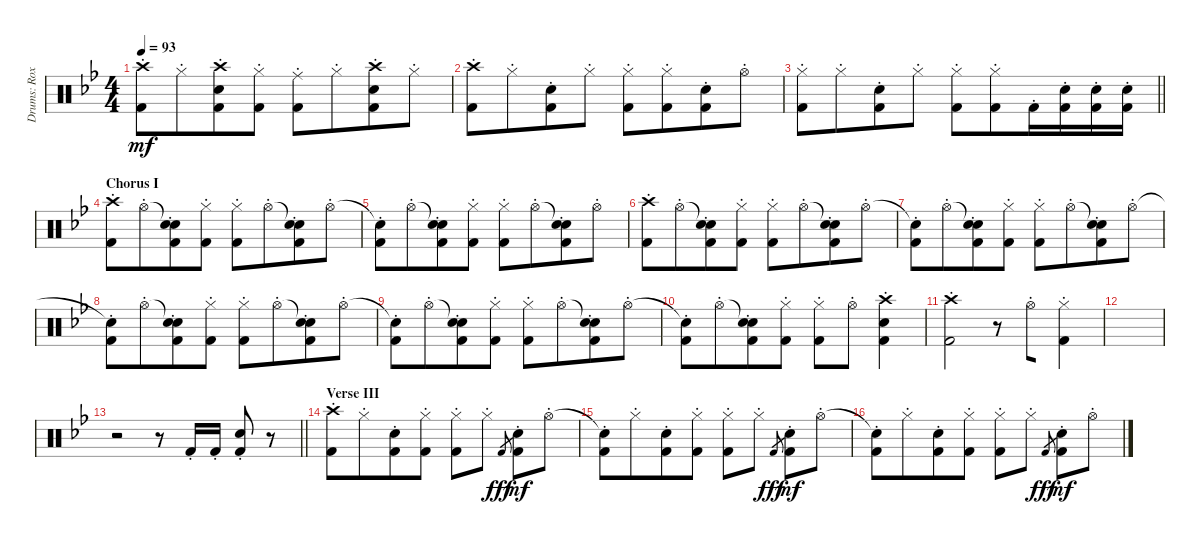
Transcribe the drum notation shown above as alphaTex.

\track ("Drums: Roxy" "Drums: Rox") {instrument percussion}
\staff {score}
\articulation defaults
\ts (4 4)
\tempo 93
\clef neutral
\ks bb
("Crash high (hit)"{st} "Kick (hit) 2"{st}).8{dy mf} "Hi-Hat (closed)"{st}.8{beam merge} ("Crash high (hit)"{st} "Snare (hit) 2"{st} "Kick (hit) 2"{st}).8 ("Hi-Hat (closed)"{st} "Kick (hit) 2"{st}).8{beam split} ("Ride (middle)"{st} "Kick (hit) 2"{st}).8 "Hi-Hat (closed)"{st}.8{beam merge} ("Crash high (hit)"{st} "Snare (hit) 2"{st} "Kick (hit) 2"{st}).8 "Hi-Hat (closed)"{st}.8 |
("Crash high (hit)"{st} "Kick (hit) 2"{st}).8 "Hi-Hat (closed)"{st}.8{beam merge} ("Snare (hit) 2"{st} "Kick (hit) 2"{st}).8 "Hi-Hat (closed)"{st}.8{beam split} ("Hi-Hat (closed)"{st} "Kick (hit) 2"{st}).8 ("Hi-Hat (closed)"{st} "Kick (hit) 2"{st}).8{beam merge} ("Snare (hit) 2"{st} "Kick (hit) 2"{st}).8 "Hi-Hat (open)"{st}.8 |
\barLineRight lightlight
("Hi-Hat (closed)"{st} "Kick (hit) 2"{st}).8 "Hi-Hat (closed)"{st}.8{beam merge} ("Snare (hit) 2"{st} "Kick (hit) 2"{st}).8 "Hi-Hat (closed)"{st}.8{beam split} ("Hi-Hat (closed)"{st} "Kick (hit) 2"{st}).8 ("Hi-Hat (closed)"{st} "Kick (hit) 2"{st}).8{beam merge} "Kick (hit) 2"{st}.16{beam merge} ("Snare (hit) 2"{st} "Kick (hit) 2"{st}).16{beam merge} ("Snare (hit) 2"{st} "Kick (hit) 2"{st}).16{beam merge} ("Snare (hit) 2"{st} "Kick (hit) 2"{st}).16 |
\section ("" "Chorus I")
("Crash high (hit)"{st} "Kick (hit) 2"{st}).8 "Hi-Hat (open)"{st}.8{beam merge} ("Snare (hit)"{t} "Snare (hit) 2"{st} "Kick (hit) 2"{st}).8 ("Hi-Hat (closed)"{st} "Kick (hit) 2"{st}).8{beam split} ("Hi-Hat (closed)"{st} "Kick (hit) 2"{st}).8 "Hi-Hat (open)"{st}.8{beam merge} ("Snare (hit)"{t} "Snare (hit) 2"{st} "Kick (hit) 2"{st}).8 "Hi-Hat (open)"{st}.8 |
("Snare (hit)"{t} "Kick (hit) 2"{st}).8 "Hi-Hat (open)"{st}.8{beam merge} ("Snare (hit)"{t} "Snare (hit) 2"{st} "Kick (hit) 2"{st}).8 ("Hi-Hat (closed)"{st} "Kick (hit) 2"{st}).8{beam split} ("Hi-Hat (closed)"{st} "Kick (hit) 2"{st}).8 "Hi-Hat (open)"{st}.8{beam merge} ("Snare (hit)"{t} "Snare (hit) 2"{st} "Kick (hit) 2"{st}).8 "Hi-Hat (open)"{st}.8 |
("Crash high (hit)"{st} "Kick (hit) 2"{st}).8 "Hi-Hat (open)"{st}.8{beam merge} ("Snare (hit)"{t} "Snare (hit) 2"{st} "Kick (hit) 2"{st}).8 ("Hi-Hat (closed)"{st} "Kick (hit) 2"{st}).8{beam split} ("Hi-Hat (closed)"{st} "Kick (hit) 2"{st}).8 "Hi-Hat (open)"{st}.8{beam merge} ("Snare (hit)"{t} "Snare (hit) 2"{st} "Kick (hit) 2"{st}).8 "Hi-Hat (open)"{st}.8 |
("Snare (hit)"{t} "Kick (hit) 2"{st}).8 "Hi-Hat (open)"{st}.8{beam merge} ("Snare (hit)"{t} "Snare (hit) 2"{st} "Kick (hit) 2"{st}).8 ("Hi-Hat (closed)"{st} "Kick (hit) 2"{st}).8{beam split} ("Hi-Hat (closed)"{st} "Kick (hit) 2"{st}).8 "Hi-Hat (open)"{st}.8{beam merge} ("Snare (hit)"{t} "Snare (hit) 2"{st} "Kick (hit) 2"{st}).8 "Hi-Hat (open)"{st}.8 |
("Snare (hit)"{t} "Kick (hit) 2"{st}).8 "Hi-Hat (open)"{st}.8{beam merge} ("Snare (hit)"{t} "Snare (hit) 2"{st} "Kick (hit) 2"{st}).8 ("Hi-Hat (closed)"{st} "Kick (hit) 2"{st}).8{beam split} ("Hi-Hat (closed)"{st} "Kick (hit) 2"{st}).8 "Hi-Hat (open)"{st}.8{beam merge} ("Snare (hit)"{t} "Snare (hit) 2"{st} "Kick (hit) 2"{st}).8 "Hi-Hat (open)"{st}.8 |
("Snare (hit)"{t} "Kick (hit) 2"{st}).8 "Hi-Hat (open)"{st}.8{beam merge} ("Snare (hit)"{t} "Snare (hit) 2"{st} "Kick (hit) 2"{st}).8 ("Hi-Hat (closed)"{st} "Kick (hit) 2"{st}).8{beam split} ("Hi-Hat (closed)"{st} "Kick (hit) 2"{st}).8 "Hi-Hat (open)"{st}.8{beam merge} ("Snare (hit)"{t} "Snare (hit) 2"{st} "Kick (hit) 2"{st}).8 "Hi-Hat (open)"{st}.8 |
("Snare (hit)"{t} "Kick (hit) 2"{st}).8 "Hi-Hat (open)"{st}.8{beam merge} ("Snare (hit)"{t} "Snare (hit) 2"{st} "Kick (hit) 2"{st}).8 ("Hi-Hat (closed)"{st} "Kick (hit) 2"{st}).8{beam split} ("Hi-Hat (closed)"{st} "Kick (hit) 2"{st}).8 "Hi-Hat (open)"{st}.8{beam merge} ("Crash high (hit)"{st} "Snare (hit) 2"{st} "Kick (hit) 2"{st}).4 |
("Crash high (hit)"{st} "Kick (hit) 2"{st}).2{beam split} r.8 "Hi-Hat (open)"{st}.8{beam merge} ("Hi-Hat (closed)"{st} "Kick (hit) 2"{st}).4 |
|
\barLineRight lightlight
r.2 r.8 "Kick (hit) 2"{st}.16 "Kick (hit) 2"{st}.16 ("Snare (hit) 2"{st} "Kick (hit) 2"{st}).8 r.8 |
\section ("" "Verse III")
("Crash high (hit)"{st} "Kick (hit) 2"{st}).8 "Hi-Hat (closed)"{st}.8{beam merge} ("Snare (hit) 2"{st} "Kick (hit) 2"{st}).8 ("Hi-Hat (closed)"{st} "Kick (hit) 2"{st}).8{beam split} ("Hi-Hat (closed)"{st} "Kick (hit) 2"{st}).8 "Hi-Hat (closed)"{st}.8 "Kick (hit) 2".8{gr dy fff beam merge} ("Snare (hit) 2"{st} "Kick (hit) 2"{st}).8{dy mf} "Hi-Hat (open)"{st}.8 |
("Snare (hit)"{t} "Kick (hit) 2"{st}).8 "Hi-Hat (closed)"{st}.8{beam merge} ("Snare (hit) 2"{st} "Kick (hit) 2"{st}).8 ("Hi-Hat (closed)"{st} "Kick (hit) 2"{st}).8{beam split} ("Hi-Hat (closed)"{st} "Kick (hit) 2"{st}).8 "Hi-Hat (closed)"{st}.8 "Kick (hit) 2".8{gr dy fff beam merge} ("Snare (hit) 2"{st} "Kick (hit) 2"{st}).8{dy mf} "Hi-Hat (open)"{st}.8 |
("Snare (hit)"{t} "Kick (hit) 2"{st}).8 "Hi-Hat (closed)"{st}.8{beam merge} ("Snare (hit) 2"{st} "Kick (hit) 2"{st}).8 ("Hi-Hat (closed)"{st} "Kick (hit) 2"{st}).8{beam split} ("Hi-Hat (closed)"{st} "Kick (hit) 2"{st}).8 "Hi-Hat (closed)"{st}.8 "Kick (hit) 2".8{gr dy fff beam merge} ("Snare (hit) 2"{st} "Kick (hit) 2"{st}).8{dy mf} "Hi-Hat (open)"{st}.8
